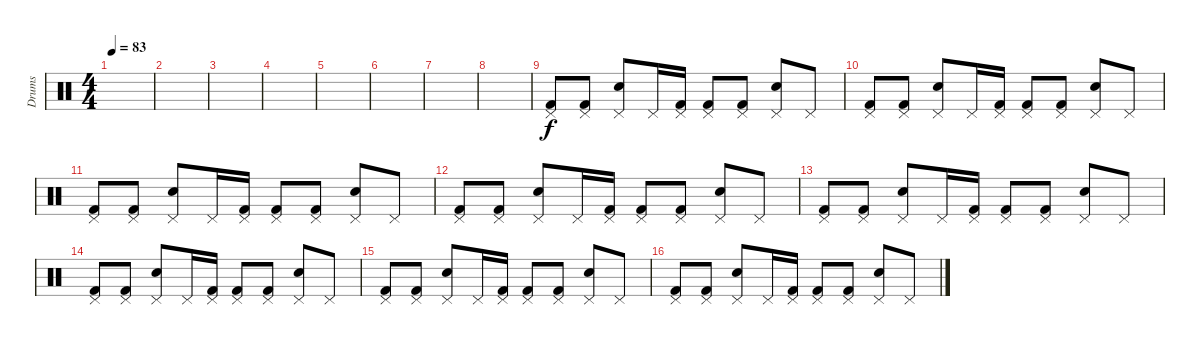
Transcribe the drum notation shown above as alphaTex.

\track ("Drums" "Drums") {instrument percussion}
\staff {score}
\articulation defaults
\ts (4 4)
\tempo 83
\clef neutral
\ks c
|
|
|
|
|
|
|
|
("Kick (hit) 2" "Pedal Hi-Hat (hit)").8 ("Kick (hit) 2" "Pedal Hi-Hat (hit)").8 ("Snare (hit) 2" "Pedal Hi-Hat (hit)").8 "Pedal Hi-Hat (hit)".16 ("Kick (hit) 2" "Pedal Hi-Hat (hit)").16 ("Kick (hit) 2" "Pedal Hi-Hat (hit)").8 ("Kick (hit) 2" "Pedal Hi-Hat (hit)").8 ("Snare (hit) 2" "Pedal Hi-Hat (hit)").8 "Pedal Hi-Hat (hit)".8 |
("Kick (hit) 2" "Pedal Hi-Hat (hit)").8 ("Kick (hit) 2" "Pedal Hi-Hat (hit)").8 ("Snare (hit) 2" "Pedal Hi-Hat (hit)").8 "Pedal Hi-Hat (hit)".16 ("Kick (hit) 2" "Pedal Hi-Hat (hit)").16 ("Kick (hit) 2" "Pedal Hi-Hat (hit)").8 ("Kick (hit) 2" "Pedal Hi-Hat (hit)").8 ("Snare (hit) 2" "Pedal Hi-Hat (hit)").8 "Pedal Hi-Hat (hit)".8 |
("Kick (hit) 2" "Pedal Hi-Hat (hit)").8 ("Kick (hit) 2" "Pedal Hi-Hat (hit)").8 ("Snare (hit) 2" "Pedal Hi-Hat (hit)").8 "Pedal Hi-Hat (hit)".16 ("Kick (hit) 2" "Pedal Hi-Hat (hit)").16 ("Kick (hit) 2" "Pedal Hi-Hat (hit)").8 ("Kick (hit) 2" "Pedal Hi-Hat (hit)").8 ("Snare (hit) 2" "Pedal Hi-Hat (hit)").8 "Pedal Hi-Hat (hit)".8 |
("Kick (hit) 2" "Pedal Hi-Hat (hit)").8 ("Kick (hit) 2" "Pedal Hi-Hat (hit)").8 ("Snare (hit) 2" "Pedal Hi-Hat (hit)").8 "Pedal Hi-Hat (hit)".16 ("Kick (hit) 2" "Pedal Hi-Hat (hit)").16 ("Kick (hit) 2" "Pedal Hi-Hat (hit)").8 ("Kick (hit) 2" "Pedal Hi-Hat (hit)").8 ("Snare (hit) 2" "Pedal Hi-Hat (hit)").8 "Pedal Hi-Hat (hit)".8 |
("Kick (hit) 2" "Pedal Hi-Hat (hit)").8 ("Kick (hit) 2" "Pedal Hi-Hat (hit)").8 ("Snare (hit) 2" "Pedal Hi-Hat (hit)").8 "Pedal Hi-Hat (hit)".16 ("Kick (hit) 2" "Pedal Hi-Hat (hit)").16 ("Kick (hit) 2" "Pedal Hi-Hat (hit)").8 ("Kick (hit) 2" "Pedal Hi-Hat (hit)").8 ("Snare (hit) 2" "Pedal Hi-Hat (hit)").8 "Pedal Hi-Hat (hit)".8 |
("Kick (hit) 2" "Pedal Hi-Hat (hit)").8 ("Kick (hit) 2" "Pedal Hi-Hat (hit)").8 ("Snare (hit) 2" "Pedal Hi-Hat (hit)").8 "Pedal Hi-Hat (hit)".16 ("Kick (hit) 2" "Pedal Hi-Hat (hit)").16 ("Kick (hit) 2" "Pedal Hi-Hat (hit)").8 ("Kick (hit) 2" "Pedal Hi-Hat (hit)").8 ("Snare (hit) 2" "Pedal Hi-Hat (hit)").8 "Pedal Hi-Hat (hit)".8 |
("Kick (hit) 2" "Pedal Hi-Hat (hit)").8 ("Kick (hit) 2" "Pedal Hi-Hat (hit)").8 ("Snare (hit) 2" "Pedal Hi-Hat (hit)").8 "Pedal Hi-Hat (hit)".16 ("Kick (hit) 2" "Pedal Hi-Hat (hit)").16 ("Kick (hit) 2" "Pedal Hi-Hat (hit)").8 ("Kick (hit) 2" "Pedal Hi-Hat (hit)").8 ("Snare (hit) 2" "Pedal Hi-Hat (hit)").8 "Pedal Hi-Hat (hit)".8 |
("Kick (hit) 2" "Pedal Hi-Hat (hit)").8 ("Kick (hit) 2" "Pedal Hi-Hat (hit)").8 ("Snare (hit) 2" "Pedal Hi-Hat (hit)").8 "Pedal Hi-Hat (hit)".16 ("Kick (hit) 2" "Pedal Hi-Hat (hit)").16 ("Kick (hit) 2" "Pedal Hi-Hat (hit)").8 ("Kick (hit) 2" "Pedal Hi-Hat (hit)").8 ("Snare (hit) 2" "Pedal Hi-Hat (hit)").8 "Pedal Hi-Hat (hit)".8
